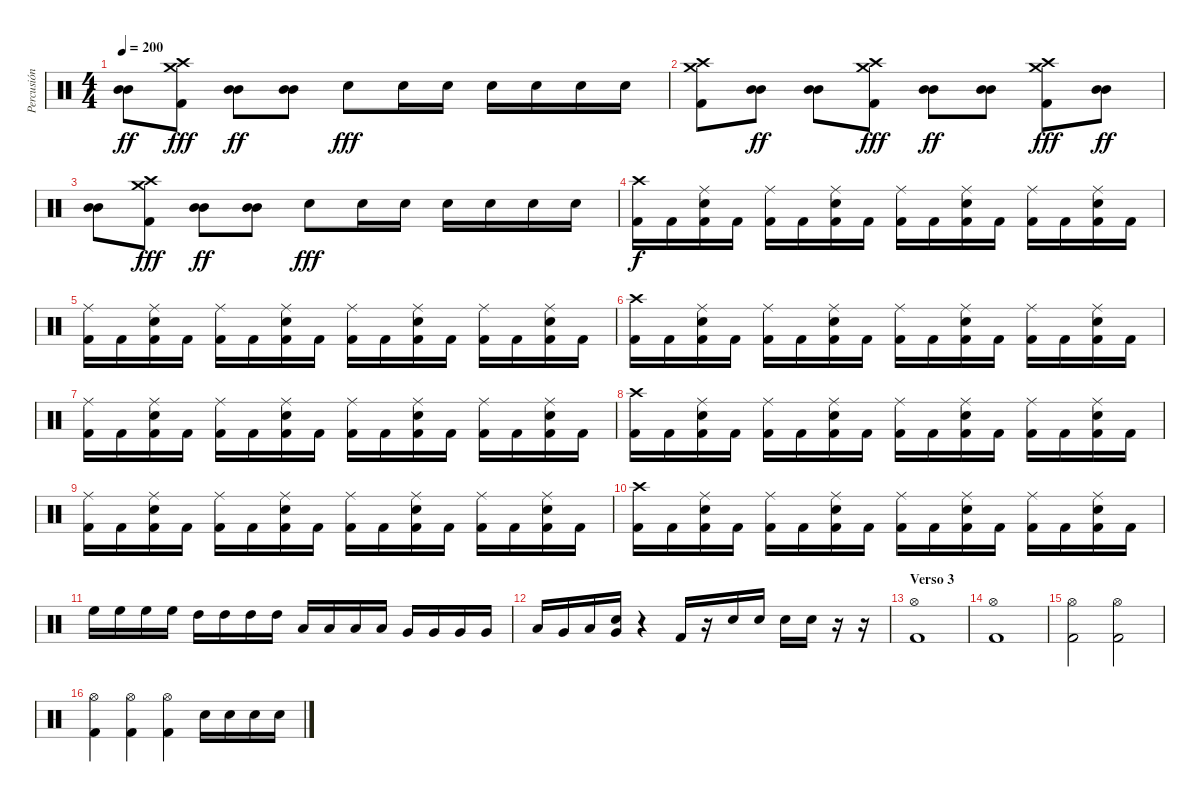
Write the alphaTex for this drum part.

\track ("Percusión" "Percusión") {instrument percussion}
\staff {score}
\articulation defaults
\ts (4 4)
\tempo 200
\clef neutral
\ks c
("Mid Tom (hit)" "Mid Tom (hit)").8{dy ff} ("Crash high (hit)" "Crash medium (hit)" "Kick (hit) 2").8{dy fff} ("Mid Tom (hit)" "Mid Tom (hit)").8{dy ff} ("Mid Tom (hit)" "Mid Tom (hit)").8 "Snare (hit) 2".8{dy fff} "Snare (hit) 2".16 "Snare (hit) 2".16 "Snare (hit) 2".16 "Snare (hit) 2".16 "Snare (hit) 2".16 "Snare (hit) 2".16 |
("Crash high (hit)" "Crash medium (hit)" "Kick (hit) 2").8 ("Mid Tom (hit)" "Mid Tom (hit)").8{dy ff} ("Mid Tom (hit)" "Mid Tom (hit)").8 ("Crash high (hit)" "Crash medium (hit)" "Kick (hit) 2").8{dy fff} ("Mid Tom (hit)" "Mid Tom (hit)").8{dy ff} ("Mid Tom (hit)" "Mid Tom (hit)").8 ("Crash high (hit)" "Crash medium (hit)" "Kick (hit) 2").8{dy fff} ("Mid Tom (hit)" "Mid Tom (hit)").8{dy ff} |
("Mid Tom (hit)" "Mid Tom (hit)").8 ("Crash high (hit)" "Crash medium (hit)" "Kick (hit) 2").8{dy fff} ("Mid Tom (hit)" "Mid Tom (hit)").8{dy ff} ("Mid Tom (hit)" "Mid Tom (hit)").8 "Snare (hit) 2".8{dy fff} "Snare (hit) 2".16 "Snare (hit) 2".16 "Snare (hit) 2".16 "Snare (hit) 2".16 "Snare (hit) 2".16 "Snare (hit) 2".16 |
("Kick (hit) 2" "Crash high (hit)").16{dy f} "Kick (hit) 2".16 ("Kick (hit) 2" "Ride (middle)" "Snare (hit) 2").16 "Kick (hit) 2".16 ("Kick (hit) 2" "Ride (middle)").16 "Kick (hit) 2".16 ("Kick (hit) 2" "Ride (middle)" "Snare (hit) 2").16 "Kick (hit) 2".16 ("Kick (hit) 2" "Ride (middle)").16 "Kick (hit) 2".16 ("Kick (hit) 2" "Ride (middle)" "Snare (hit) 2").16 "Kick (hit) 2".16 ("Kick (hit) 2" "Ride (middle)").16 "Kick (hit) 2".16 ("Kick (hit) 2" "Ride (middle)" "Snare (hit) 2").16 "Kick (hit) 2".16 |
("Kick (hit) 2" "Ride (middle)").16 "Kick (hit) 2".16 ("Kick (hit) 2" "Ride (middle)" "Snare (hit) 2").16 "Kick (hit) 2".16 ("Kick (hit) 2" "Ride (middle)").16 "Kick (hit) 2".16 ("Kick (hit) 2" "Ride (middle)" "Snare (hit) 2").16 "Kick (hit) 2".16 ("Kick (hit) 2" "Ride (middle)").16 "Kick (hit) 2".16 ("Kick (hit) 2" "Ride (middle)" "Snare (hit) 2").16 "Kick (hit) 2".16 ("Kick (hit) 2" "Ride (middle)").16 "Kick (hit) 2".16 ("Kick (hit) 2" "Ride (middle)" "Snare (hit) 2").16 "Kick (hit) 2".16 |
("Kick (hit) 2" "Crash high (hit)").16 "Kick (hit) 2".16 ("Kick (hit) 2" "Ride (middle)" "Snare (hit) 2").16 "Kick (hit) 2".16 ("Kick (hit) 2" "Ride (middle)").16 "Kick (hit) 2".16 ("Kick (hit) 2" "Ride (middle)" "Snare (hit) 2").16 "Kick (hit) 2".16 ("Kick (hit) 2" "Ride (middle)").16 "Kick (hit) 2".16 ("Kick (hit) 2" "Ride (middle)" "Snare (hit) 2").16 "Kick (hit) 2".16 ("Kick (hit) 2" "Ride (middle)").16 "Kick (hit) 2".16 ("Kick (hit) 2" "Ride (middle)" "Snare (hit) 2").16 "Kick (hit) 2".16 |
("Kick (hit) 2" "Ride (middle)").16 "Kick (hit) 2".16 ("Kick (hit) 2" "Ride (middle)" "Snare (hit) 2").16 "Kick (hit) 2".16 ("Kick (hit) 2" "Ride (middle)").16 "Kick (hit) 2".16 ("Kick (hit) 2" "Ride (middle)" "Snare (hit) 2").16 "Kick (hit) 2".16 ("Kick (hit) 2" "Ride (middle)").16 "Kick (hit) 2".16 ("Kick (hit) 2" "Ride (middle)" "Snare (hit) 2").16 "Kick (hit) 2".16 ("Kick (hit) 2" "Ride (middle)").16 "Kick (hit) 2".16 ("Kick (hit) 2" "Ride (middle)" "Snare (hit) 2").16 "Kick (hit) 2".16 |
("Kick (hit) 2" "Crash high (hit)").16 "Kick (hit) 2".16 ("Kick (hit) 2" "Ride (middle)" "Snare (hit) 2").16 "Kick (hit) 2".16 ("Kick (hit) 2" "Ride (middle)").16 "Kick (hit) 2".16 ("Kick (hit) 2" "Ride (middle)" "Snare (hit) 2").16 "Kick (hit) 2".16 ("Kick (hit) 2" "Ride (middle)").16 "Kick (hit) 2".16 ("Kick (hit) 2" "Ride (middle)" "Snare (hit) 2").16 "Kick (hit) 2".16 ("Kick (hit) 2" "Ride (middle)").16 "Kick (hit) 2".16 ("Kick (hit) 2" "Ride (middle)" "Snare (hit) 2").16 "Kick (hit) 2".16 |
("Kick (hit) 2" "Ride (middle)").16 "Kick (hit) 2".16 ("Kick (hit) 2" "Ride (middle)" "Snare (hit) 2").16 "Kick (hit) 2".16 ("Kick (hit) 2" "Ride (middle)").16 "Kick (hit) 2".16 ("Kick (hit) 2" "Ride (middle)" "Snare (hit) 2").16 "Kick (hit) 2".16 ("Kick (hit) 2" "Ride (middle)").16 "Kick (hit) 2".16 ("Kick (hit) 2" "Ride (middle)" "Snare (hit) 2").16 "Kick (hit) 2".16 ("Kick (hit) 2" "Ride (middle)").16 "Kick (hit) 2".16 ("Kick (hit) 2" "Ride (middle)" "Snare (hit) 2").16 "Kick (hit) 2".16 |
("Kick (hit) 2" "Crash high (hit)").16 "Kick (hit) 2".16 ("Kick (hit) 2" "Ride (middle)" "Snare (hit) 2").16 "Kick (hit) 2".16 ("Kick (hit) 2" "Ride (middle)").16 "Kick (hit) 2".16 ("Kick (hit) 2" "Ride (middle)" "Snare (hit) 2").16 "Kick (hit) 2".16 ("Kick (hit) 2" "Ride (middle)").16 "Kick (hit) 2".16 ("Kick (hit) 2" "Ride (middle)" "Snare (hit) 2").16 "Kick (hit) 2".16 ("Kick (hit) 2" "Ride (middle)").16 "Kick (hit) 2".16 ("Kick (hit) 2" "Ride (middle)" "Snare (hit) 2").16 "Kick (hit) 2".16 |
"High Floor Tom (hit)".16 "High Floor Tom (hit)".16 "High Floor Tom (hit)".16 "High Floor Tom (hit)".16 "High Tom (hit)".16 "High Tom (hit)".16 "High Tom (hit)".16 "High Tom (hit)".16 "Low Tom (hit)".16 "Low Tom (hit)".16 "Low Tom (hit)".16 "Low Tom (hit)".16 "Very Low Tom (hit)".16 "Very Low Tom (hit)".16 "Very Low Tom (hit)".16 "Very Low Tom (hit)".16 |
"Low Tom (hit)".16 "Very Low Tom (hit)".16 "Low Floor Tom (hit)".16 ("Electric Snare (hit)" "Very Low Tom (hit)").16 r.4 "Kick (hit) 2".16 r.16 "Snare (hit) 2".16 "Snare (hit) 2".16 "Snare (hit) 2".16 "Snare (hit) 2".16 r.16 r.16 |
\section ("" "Verso 3")
("Hi-Hat (open)" "Kick (hit) 2").1 |
("Hi-Hat (open)" "Kick (hit) 2").1 |
("Hi-Hat (open)" "Kick (hit) 2").2 ("Hi-Hat (open)" "Kick (hit) 2").2 |
("Hi-Hat (open)" "Kick (hit) 2").4 ("Hi-Hat (open)" "Kick (hit) 2").4 ("Hi-Hat (open)" "Kick (hit) 2").4 "Snare (hit) 2".16 "Snare (hit) 2".16 "Snare (hit) 2".16 "Snare (hit) 2".16
